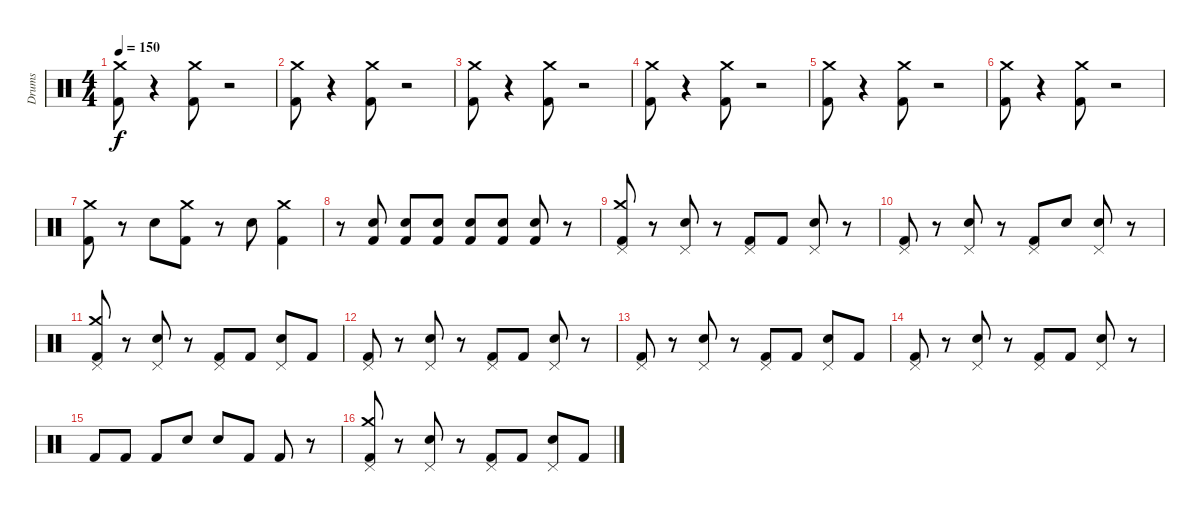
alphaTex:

\track ("Drums" "Drums") {instrument percussion}
\staff {score}
\articulation defaults
\ts (4 4)
\tempo 150
\clef neutral
\ks c
("Kick (hit) 2" "Crash medium (hit)").8{dy f} r.4 ("Kick (hit) 2" "Crash medium (hit)").8 r.2 |
("Kick (hit) 2" "Crash medium (hit)").8 r.4 ("Kick (hit) 2" "Crash medium (hit)").8 r.2 |
("Kick (hit) 2" "Crash medium (hit)").8 r.4 ("Kick (hit) 2" "Crash medium (hit)").8 r.2 |
("Kick (hit) 2" "Crash medium (hit)").8 r.4 ("Kick (hit) 2" "Crash medium (hit)").8 r.2 |
("Kick (hit) 2" "Crash medium (hit)").8 r.4 ("Kick (hit) 2" "Crash medium (hit)").8 r.2 |
("Kick (hit) 2" "Crash medium (hit)").8 r.4 ("Kick (hit) 2" "Crash medium (hit)").8 r.2 |
("Kick (hit) 2" "Crash medium (hit)").8 r.8 "Electric Snare (hit)".8 ("Kick (hit) 2" "Crash medium (hit)").8 r.8 "Electric Snare (hit)".8 ("Kick (hit) 2" "Crash medium (hit)").4 |
r.8 ("Kick (hit) 2" "Electric Snare (hit)").8 ("Kick (hit) 2" "Electric Snare (hit)").8 ("Kick (hit) 2" "Electric Snare (hit)").8 ("Kick (hit) 2" "Electric Snare (hit)").8 ("Kick (hit) 2" "Electric Snare (hit)").8 ("Kick (hit) 2" "Electric Snare (hit)").8 r.8 |
("Kick (hit) 2" "Pedal Hi-Hat (hit)" "Crash medium (hit)").8 r.8 ("Pedal Hi-Hat (hit)" "Electric Snare (hit)").8 r.8 ("Kick (hit) 2" "Pedal Hi-Hat (hit)").8 "Kick (hit) 2".8 ("Pedal Hi-Hat (hit)" "Electric Snare (hit)").8 r.8 |
("Kick (hit) 2" "Pedal Hi-Hat (hit)").8 r.8 ("Pedal Hi-Hat (hit)" "Electric Snare (hit)").8 r.8 ("Kick (hit) 2" "Pedal Hi-Hat (hit)").8 "Electric Snare (hit)".8 ("Pedal Hi-Hat (hit)" "Electric Snare (hit)").8 r.8 |
("Kick (hit) 2" "Pedal Hi-Hat (hit)" "Crash medium (hit)").8 r.8 ("Pedal Hi-Hat (hit)" "Electric Snare (hit)").8 r.8 ("Kick (hit) 2" "Pedal Hi-Hat (hit)").8 "Kick (hit) 2".8 ("Pedal Hi-Hat (hit)" "Electric Snare (hit)").8 "Kick (hit) 2".8 |
("Kick (hit) 2" "Pedal Hi-Hat (hit)").8 r.8 ("Pedal Hi-Hat (hit)" "Electric Snare (hit)").8 r.8 ("Kick (hit) 2" "Pedal Hi-Hat (hit)").8 "Kick (hit) 2".8 ("Pedal Hi-Hat (hit)" "Electric Snare (hit)").8 r.8 |
("Kick (hit) 2" "Pedal Hi-Hat (hit)").8 r.8 ("Pedal Hi-Hat (hit)" "Electric Snare (hit)").8 r.8 ("Kick (hit) 2" "Pedal Hi-Hat (hit)").8 "Kick (hit) 2".8 ("Pedal Hi-Hat (hit)" "Electric Snare (hit)").8 "Kick (hit) 2".8 |
("Kick (hit) 2" "Pedal Hi-Hat (hit)").8 r.8 ("Pedal Hi-Hat (hit)" "Electric Snare (hit)").8 r.8 ("Kick (hit) 2" "Pedal Hi-Hat (hit)").8 "Kick (hit) 2".8 ("Pedal Hi-Hat (hit)" "Electric Snare (hit)").8 r.8 |
"Kick (hit) 2".8 "Kick (hit) 2".8 "Kick (hit) 2".8 "Electric Snare (hit)".8 "Electric Snare (hit)".8 "Kick (hit) 2".8 "Kick (hit) 2".8 r.8 |
("Kick (hit) 2" "Pedal Hi-Hat (hit)" "Crash medium (hit)").8 r.8 ("Pedal Hi-Hat (hit)" "Electric Snare (hit)").8 r.8 ("Kick (hit) 2" "Pedal Hi-Hat (hit)").8 "Kick (hit) 2".8 ("Pedal Hi-Hat (hit)" "Electric Snare (hit)").8 "Kick (hit) 2".8
